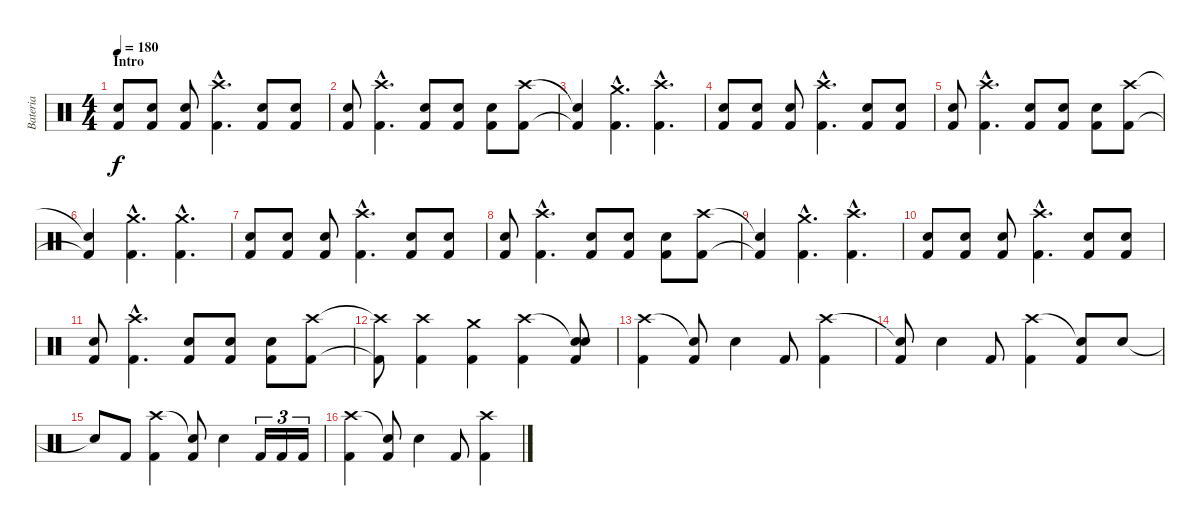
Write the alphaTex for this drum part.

\track ("Bateria" "Bateria") {instrument percussion}
\staff {score}
\articulation defaults
\ts (4 4)
\section ("" "Intro")
\tempo 180
\clef neutral
\ks c
("Snare (hit) 2" "Kick (hit) 2").8{dy f} ("Snare (hit) 2" "Kick (hit) 2").8 ("Snare (hit) 2" "Kick (hit) 2").8 ("Crash high (hit)"{hac} "Kick (hit) 2"{hac}).4{d} ("Snare (hit) 2" "Kick (hit) 2").8 ("Snare (hit) 2" "Kick (hit) 2").8 |
("Snare (hit) 2" "Kick (hit) 2").8 ("Crash high (hit)"{hac} "Kick (hit) 2"{hac}).4{d} ("Snare (hit) 2" "Kick (hit) 2").8 ("Snare (hit) 2" "Kick (hit) 2").8 ("Snare (hit) 2" "Kick (hit) 2").8 ("Crash high (hit)" "Kick (hit) 2").8 |
("Snare (hit)"{t} "Kick (hit) 2"{t}).4 ("Crash medium (hit)"{hac} "Kick (hit) 2"{hac}).4{d} ("Crash high (hit)"{hac} "Kick (hit) 2"{hac}).4{d} |
("Snare (hit) 2" "Kick (hit) 2").8 ("Snare (hit) 2" "Kick (hit) 2").8 ("Snare (hit) 2" "Kick (hit) 2").8 ("Crash high (hit)"{hac} "Kick (hit) 2"{hac}).4{d} ("Snare (hit) 2" "Kick (hit) 2").8 ("Snare (hit) 2" "Kick (hit) 2").8 |
("Snare (hit) 2" "Kick (hit) 2").8 ("Crash high (hit)"{hac} "Kick (hit) 2"{hac}).4{d} ("Snare (hit) 2" "Kick (hit) 2").8 ("Snare (hit) 2" "Kick (hit) 2").8 ("Snare (hit) 2" "Kick (hit) 2").8 ("Crash high (hit)" "Kick (hit) 2").8 |
("Snare (hit)"{t} "Kick (hit) 2"{t}).4 ("Crash medium (hit)"{hac} "Kick (hit) 2"{hac}).4{d} ("Crash medium (hit)"{hac} "Kick (hit) 2"{hac}).4{d} |
("Snare (hit) 2" "Kick (hit) 2").8 ("Snare (hit) 2" "Kick (hit) 2").8 ("Snare (hit) 2" "Kick (hit) 2").8 ("Crash high (hit)"{hac} "Kick (hit) 2"{hac}).4{d} ("Snare (hit) 2" "Kick (hit) 2").8 ("Snare (hit) 2" "Kick (hit) 2").8 |
("Snare (hit) 2" "Kick (hit) 2").8 ("Crash high (hit)"{hac} "Kick (hit) 2"{hac}).4{d} ("Snare (hit) 2" "Kick (hit) 2").8 ("Snare (hit) 2" "Kick (hit) 2").8 ("Snare (hit) 2" "Kick (hit) 2").8 ("Crash high (hit)" "Kick (hit) 2").8 |
("Snare (hit)"{t} "Kick (hit) 2"{t}).4 ("Crash medium (hit)"{hac} "Kick (hit) 2"{hac}).4{d} ("Crash high (hit)"{hac} "Kick (hit) 2"{hac}).4{d} |
("Snare (hit) 2" "Kick (hit) 2").8 ("Snare (hit) 2" "Kick (hit) 2").8 ("Snare (hit) 2" "Kick (hit) 2").8 ("Crash high (hit)"{hac} "Kick (hit) 2"{hac}).4{d} ("Snare (hit) 2" "Kick (hit) 2").8 ("Snare (hit) 2" "Kick (hit) 2").8 |
("Snare (hit) 2" "Kick (hit) 2").8 ("Crash high (hit)"{hac} "Kick (hit) 2"{hac}).4{d} ("Snare (hit) 2" "Kick (hit) 2").8 ("Snare (hit) 2" "Kick (hit) 2").8 ("Snare (hit) 2" "Kick (hit) 2").8 ("Crash high (hit)" "Kick (hit) 2").8 |
("Crash high (hit)"{t} "Kick (hit) 2"{t}).8 ("Crash high (hit)" "Kick (hit) 2").4 ("Crash medium (hit)" "Kick (hit) 2").4 ("Crash high (hit)" "Kick (hit) 2").4 ("Snare (hit)"{t} "Kick (hit) 2" "Snare (hit)").8 |
("Crash high (hit)" "Kick (hit) 2").4 ("Snare (hit) 2"{t} "Kick (hit) 2").8 "Electric Snare (hit)".4 "Kick (hit) 2".8 ("Crash high (hit)" "Kick (hit) 2").4 |
("Snare (hit) 2"{t} "Kick (hit) 2").8 "Electric Snare (hit)".4 "Kick (hit) 2".8 ("Crash high (hit)" "Kick (hit) 2").4 ("Snare (hit) 2"{t} "Kick (hit) 2").8 "Electric Snare (hit)".8 |
"Snare (hit)"{t}.8 "Kick (hit) 2".8 ("Crash high (hit)" "Kick (hit) 2").4 ("Snare (hit)"{t} "Kick (hit) 2").8 "Electric Snare (hit)".4 "Kick (hit) 2".16{tu (3 2)} "Kick (hit) 2".16{tu (3 2)} "Kick (hit) 2".16{tu (3 2)} |
("Crash high (hit)" "Kick (hit) 2").4 ("Snare (hit)"{t} "Kick (hit) 2").8 "Electric Snare (hit)".4 "Kick (hit) 2".8 ("Crash high (hit)" "Kick (hit) 2").4
